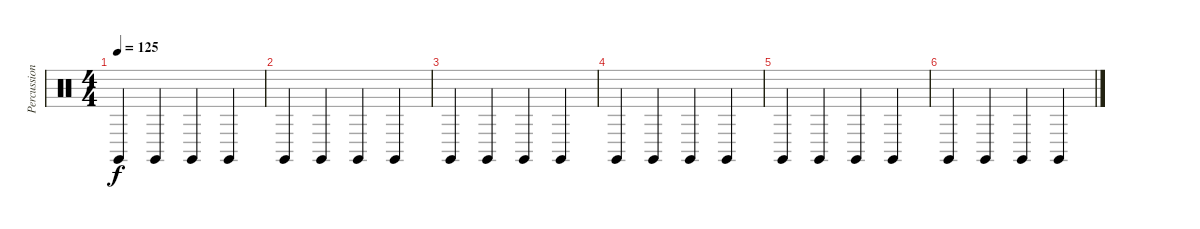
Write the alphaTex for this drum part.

\track ("Percussion" "Percussion") {instrument percussion}
\staff {score}
\articulation defaults
\ts (4 4)
\tempo 125
\clef neutral
\ks c "Claves (hit)".4{dy f} "Claves (hit)".4 "Claves (hit)".4 "Claves (hit)".4
|
"Claves (hit)".4 "Claves (hit)".4 "Claves (hit)".4 "Claves (hit)".4 |
"Claves (hit)".4 "Claves (hit)".4 "Claves (hit)".4 "Claves (hit)".4 |
"Claves (hit)".4 "Claves (hit)".4 "Claves (hit)".4 "Claves (hit)".4 |
"Claves (hit)".4 "Claves (hit)".4 "Claves (hit)".4 "Claves (hit)".4 |
"Claves (hit)".4 "Claves (hit)".4 "Claves (hit)".4 "Claves (hit)".4
